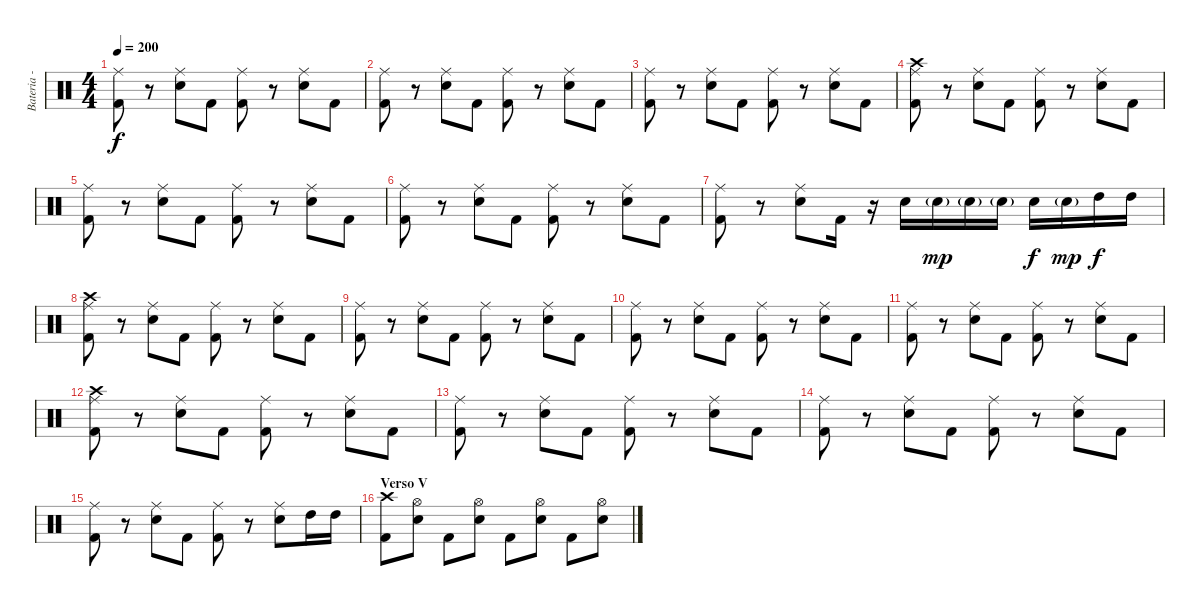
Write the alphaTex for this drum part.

\track ("Bateria - Larzon" "Bateria - ") {instrument percussion}
\staff {score}
\articulation defaults
\ts (4 4)
\tempo 200
\clef neutral
\ks c
("Kick (hit) 2" "Ride (middle)").8{dy f} r.8 ("Electric Snare (hit)" "Ride (middle)").8 "Kick (hit) 2".8 ("Kick (hit) 2" "Ride (middle)").8 r.8 ("Electric Snare (hit)" "Ride (middle)").8 "Kick (hit) 2".8 |
("Kick (hit) 2" "Ride (middle)").8 r.8 ("Electric Snare (hit)" "Ride (middle)").8 "Kick (hit) 2".8 ("Kick (hit) 2" "Ride (middle)").8 r.8 ("Electric Snare (hit)" "Ride (middle)").8 "Kick (hit) 2".8 |
("Kick (hit) 2" "Ride (middle)").8 r.8 ("Electric Snare (hit)" "Ride (middle)").8 "Kick (hit) 2".8 ("Kick (hit) 2" "Ride (middle)").8 r.8 ("Electric Snare (hit)" "Ride (middle)").8 "Kick (hit) 2".8 |
("Kick (hit) 2" "Ride (middle)" "Crash high (hit)").8 r.8 ("Electric Snare (hit)" "Ride (middle)").8 "Kick (hit) 2".8 ("Kick (hit) 2" "Ride (middle)").8 r.8 ("Electric Snare (hit)" "Ride (middle)").8 "Kick (hit) 2".8 |
("Kick (hit) 2" "Ride (middle)").8 r.8 ("Electric Snare (hit)" "Ride (middle)").8 "Kick (hit) 2".8 ("Kick (hit) 2" "Ride (middle)").8 r.8 ("Electric Snare (hit)" "Ride (middle)").8 "Kick (hit) 2".8 |
("Kick (hit) 2" "Ride (middle)").8 r.8 ("Electric Snare (hit)" "Ride (middle)").8 "Kick (hit) 2".8 ("Kick (hit) 2" "Ride (middle)").8 r.8 ("Electric Snare (hit)" "Ride (middle)").8 "Kick (hit) 2".8 |
("Kick (hit) 2" "Ride (middle)").8 r.8 ("Electric Snare (hit)" "Ride (middle)").8 "Kick (hit) 2".16 r.16 "Electric Snare (hit)".16 "Electric Snare (hit)"{g}.16{dy mp} "Electric Snare (hit)"{g}.16 "Electric Snare (hit)"{g}.16 "Electric Snare (hit)".16{dy f} "Electric Snare (hit)"{g}.16{dy mp} "High Tom (hit)".16{dy f} "High Tom (hit)".16 |
("Kick (hit) 2" "Ride (middle)" "Crash high (hit)").8 r.8 ("Electric Snare (hit)" "Ride (middle)").8 "Kick (hit) 2".8 ("Kick (hit) 2" "Ride (middle)").8 r.8 ("Electric Snare (hit)" "Ride (middle)").8 "Kick (hit) 2".8 |
("Kick (hit) 2" "Ride (middle)").8 r.8 ("Electric Snare (hit)" "Ride (middle)").8 "Kick (hit) 2".8 ("Kick (hit) 2" "Ride (middle)").8 r.8 ("Electric Snare (hit)" "Ride (middle)").8 "Kick (hit) 2".8 |
("Kick (hit) 2" "Ride (middle)").8 r.8 ("Electric Snare (hit)" "Ride (middle)").8 "Kick (hit) 2".8 ("Kick (hit) 2" "Ride (middle)").8 r.8 ("Electric Snare (hit)" "Ride (middle)").8 "Kick (hit) 2".8 |
("Kick (hit) 2" "Ride (middle)").8 r.8 ("Electric Snare (hit)" "Ride (middle)").8 "Kick (hit) 2".8 ("Kick (hit) 2" "Ride (middle)").8 r.8 ("Electric Snare (hit)" "Ride (middle)").8 "Kick (hit) 2".8 |
("Kick (hit) 2" "Ride (middle)" "Crash high (hit)").8 r.8 ("Electric Snare (hit)" "Ride (middle)").8 "Kick (hit) 2".8 ("Kick (hit) 2" "Ride (middle)").8 r.8 ("Electric Snare (hit)" "Ride (middle)").8 "Kick (hit) 2".8 |
("Kick (hit) 2" "Ride (middle)").8 r.8 ("Electric Snare (hit)" "Ride (middle)").8 "Kick (hit) 2".8 ("Kick (hit) 2" "Ride (middle)").8 r.8 ("Electric Snare (hit)" "Ride (middle)").8 "Kick (hit) 2".8 |
("Kick (hit) 2" "Ride (middle)").8 r.8 ("Electric Snare (hit)" "Ride (middle)").8 "Kick (hit) 2".8 ("Kick (hit) 2" "Ride (middle)").8 r.8 ("Electric Snare (hit)" "Ride (middle)").8 "Kick (hit) 2".8 |
("Kick (hit) 2" "Ride (middle)").8 r.8 ("Electric Snare (hit)" "Ride (middle)").8 "Kick (hit) 2".8 ("Kick (hit) 2" "Ride (middle)").8 r.8 ("Electric Snare (hit)" "Ride (middle)").8 "High Tom (hit)".16 "High Tom (hit)".16 |
\section ("" "Verso V")
("Kick (hit) 2" "Crash high (hit)").8 ("Electric Snare (hit)" "Hi-Hat (open)").8 "Kick (hit) 2".8 ("Electric Snare (hit)" "Hi-Hat (open)").8 "Kick (hit) 2".8 ("Electric Snare (hit)" "Hi-Hat (open)").8 "Kick (hit) 2".8 ("Electric Snare (hit)" "Hi-Hat (open)").8
